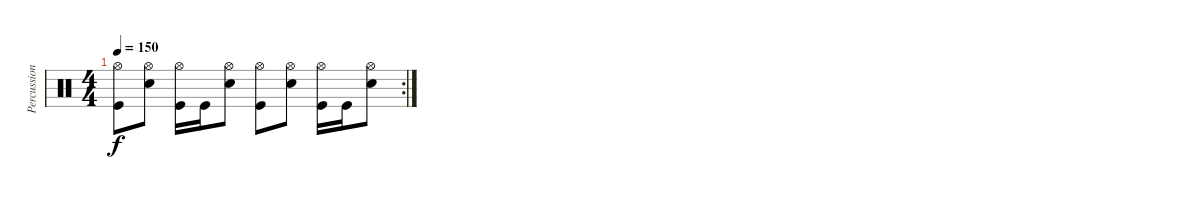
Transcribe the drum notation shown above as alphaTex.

\track ("Percussion" "Percussion") {instrument percussion}
\staff {score}
\articulation defaults
\rc 2
\ts (4 4)
\tempo 150
\clef neutral
\ks c
("Hi-Hat (open)" "Kick (hit)").8{dy f} ("Hi-Hat (open)" "Snare (hit) 2").8 ("Hi-Hat (open)" "Kick (hit)").16 "Kick (hit)".16 ("Hi-Hat (open)" "Snare (hit) 2").8 ("Hi-Hat (open)" "Kick (hit)").8 ("Hi-Hat (open)" "Snare (hit) 2").8 ("Hi-Hat (open)" "Kick (hit)").16 "Kick (hit)".16 ("Hi-Hat (open)" "Snare (hit) 2").8
